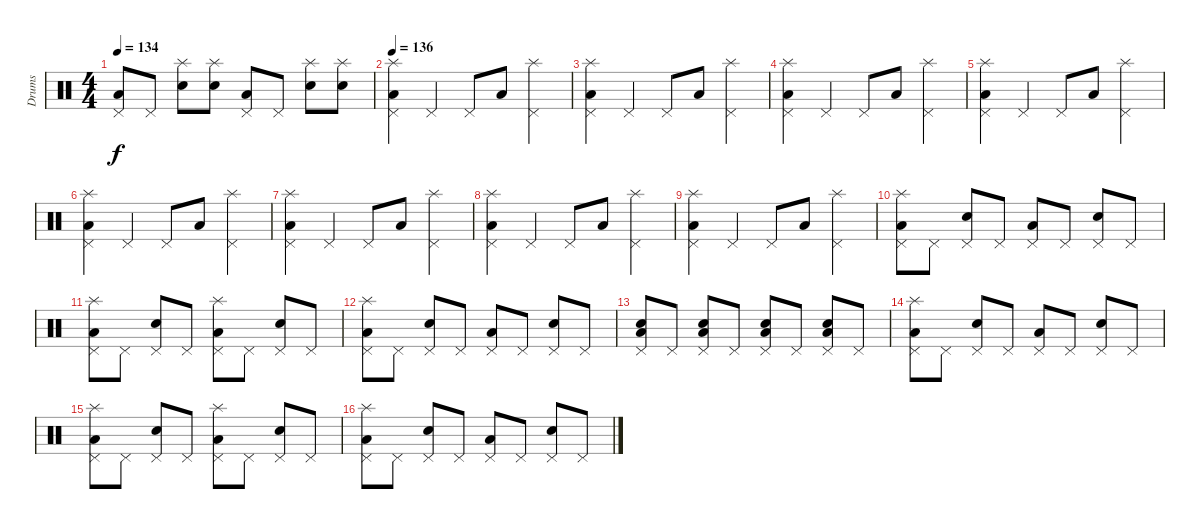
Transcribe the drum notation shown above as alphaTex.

\track ("Drums" "Drums") {instrument percussion}
\staff {score}
\articulation defaults
\ts (4 4)
\tempo 134
\clef neutral
\ks c
("Low Floor Tom (hit)" "Pedal Hi-Hat (hit)").8{dy f} "Pedal Hi-Hat (hit)".8 ("Electric Snare (hit)" "Splash (hit)").8 ("Electric Snare (hit)" "Splash (hit)").8 ("Low Floor Tom (hit)" "Pedal Hi-Hat (hit)").8 "Pedal Hi-Hat (hit)".8 ("Electric Snare (hit)" "Splash (hit)").8 ("Electric Snare (hit)" "Splash (hit)").8 |
\tempo 136
("Low Floor Tom (hit)" "Pedal Hi-Hat (hit)" "Splash (hit)").4 "Pedal Hi-Hat (hit)".4 "Pedal Hi-Hat (hit)".8 "Low Floor Tom (hit)".8 ("Pedal Hi-Hat (hit)" "Splash (hit)").4 |
("Low Floor Tom (hit)" "Pedal Hi-Hat (hit)" "Splash (hit)").4 "Pedal Hi-Hat (hit)".4 "Pedal Hi-Hat (hit)".8 "Low Floor Tom (hit)".8 ("Pedal Hi-Hat (hit)" "Splash (hit)").4 |
("Low Floor Tom (hit)" "Pedal Hi-Hat (hit)" "Splash (hit)").4 "Pedal Hi-Hat (hit)".4 "Pedal Hi-Hat (hit)".8 "Low Floor Tom (hit)".8 ("Pedal Hi-Hat (hit)" "Splash (hit)").4 |
("Low Floor Tom (hit)" "Pedal Hi-Hat (hit)" "Splash (hit)").4 "Pedal Hi-Hat (hit)".4 "Pedal Hi-Hat (hit)".8 "Low Floor Tom (hit)".8 ("Pedal Hi-Hat (hit)" "Splash (hit)").4 |
("Low Floor Tom (hit)" "Pedal Hi-Hat (hit)" "Splash (hit)").4 "Pedal Hi-Hat (hit)".4 "Pedal Hi-Hat (hit)".8 "Low Floor Tom (hit)".8 ("Pedal Hi-Hat (hit)" "Splash (hit)").4 |
("Low Floor Tom (hit)" "Pedal Hi-Hat (hit)" "Splash (hit)").4 "Pedal Hi-Hat (hit)".4 "Pedal Hi-Hat (hit)".8 "Low Floor Tom (hit)".8 ("Pedal Hi-Hat (hit)" "Splash (hit)").4 |
("Low Floor Tom (hit)" "Pedal Hi-Hat (hit)" "Splash (hit)").4 "Pedal Hi-Hat (hit)".4 "Pedal Hi-Hat (hit)".8 "Low Floor Tom (hit)".8 ("Pedal Hi-Hat (hit)" "Splash (hit)").4 |
("Low Floor Tom (hit)" "Pedal Hi-Hat (hit)" "Splash (hit)").4 "Pedal Hi-Hat (hit)".4 "Pedal Hi-Hat (hit)".8 "Low Floor Tom (hit)".8 ("Pedal Hi-Hat (hit)" "Splash (hit)").4 |
("Low Floor Tom (hit)" "Pedal Hi-Hat (hit)" "Splash (hit)").8 "Pedal Hi-Hat (hit)".8 ("Electric Snare (hit)" "Pedal Hi-Hat (hit)").8 "Pedal Hi-Hat (hit)".8 ("Low Floor Tom (hit)" "Pedal Hi-Hat (hit)").8 "Pedal Hi-Hat (hit)".8 ("Electric Snare (hit)" "Pedal Hi-Hat (hit)").8 "Pedal Hi-Hat (hit)".8 |
("Low Floor Tom (hit)" "Pedal Hi-Hat (hit)" "Splash (hit)").8 "Pedal Hi-Hat (hit)".8 ("Electric Snare (hit)" "Pedal Hi-Hat (hit)").8 "Pedal Hi-Hat (hit)".8 ("Low Floor Tom (hit)" "Pedal Hi-Hat (hit)" "Splash (hit)").8 "Pedal Hi-Hat (hit)".8 ("Electric Snare (hit)" "Pedal Hi-Hat (hit)").8 "Pedal Hi-Hat (hit)".8 |
("Low Floor Tom (hit)" "Pedal Hi-Hat (hit)" "Splash (hit)").8 "Pedal Hi-Hat (hit)".8 ("Electric Snare (hit)" "Pedal Hi-Hat (hit)").8 "Pedal Hi-Hat (hit)".8 ("Low Floor Tom (hit)" "Pedal Hi-Hat (hit)").8 "Pedal Hi-Hat (hit)".8 ("Electric Snare (hit)" "Pedal Hi-Hat (hit)").8 "Pedal Hi-Hat (hit)".8 |
("Electric Snare (hit)" "Low Floor Tom (hit)" "Pedal Hi-Hat (hit)").8 "Pedal Hi-Hat (hit)".8 ("Electric Snare (hit)" "Low Floor Tom (hit)" "Pedal Hi-Hat (hit)").8 "Pedal Hi-Hat (hit)".8 ("Electric Snare (hit)" "Low Floor Tom (hit)" "Pedal Hi-Hat (hit)").8 "Pedal Hi-Hat (hit)".8 ("Electric Snare (hit)" "Low Floor Tom (hit)" "Pedal Hi-Hat (hit)").8 "Pedal Hi-Hat (hit)".8 |
("Low Floor Tom (hit)" "Pedal Hi-Hat (hit)" "Splash (hit)").8 "Pedal Hi-Hat (hit)".8 ("Electric Snare (hit)" "Pedal Hi-Hat (hit)").8 "Pedal Hi-Hat (hit)".8 ("Low Floor Tom (hit)" "Pedal Hi-Hat (hit)").8 "Pedal Hi-Hat (hit)".8 ("Electric Snare (hit)" "Pedal Hi-Hat (hit)").8 "Pedal Hi-Hat (hit)".8 |
("Low Floor Tom (hit)" "Pedal Hi-Hat (hit)" "Splash (hit)").8 "Pedal Hi-Hat (hit)".8 ("Electric Snare (hit)" "Pedal Hi-Hat (hit)").8 "Pedal Hi-Hat (hit)".8 ("Low Floor Tom (hit)" "Pedal Hi-Hat (hit)" "Splash (hit)").8 "Pedal Hi-Hat (hit)".8 ("Electric Snare (hit)" "Pedal Hi-Hat (hit)").8 "Pedal Hi-Hat (hit)".8 |
("Low Floor Tom (hit)" "Pedal Hi-Hat (hit)" "Splash (hit)").8 "Pedal Hi-Hat (hit)".8 ("Electric Snare (hit)" "Pedal Hi-Hat (hit)").8 "Pedal Hi-Hat (hit)".8 ("Low Floor Tom (hit)" "Pedal Hi-Hat (hit)").8 "Pedal Hi-Hat (hit)".8 ("Electric Snare (hit)" "Pedal Hi-Hat (hit)").8 "Pedal Hi-Hat (hit)".8
